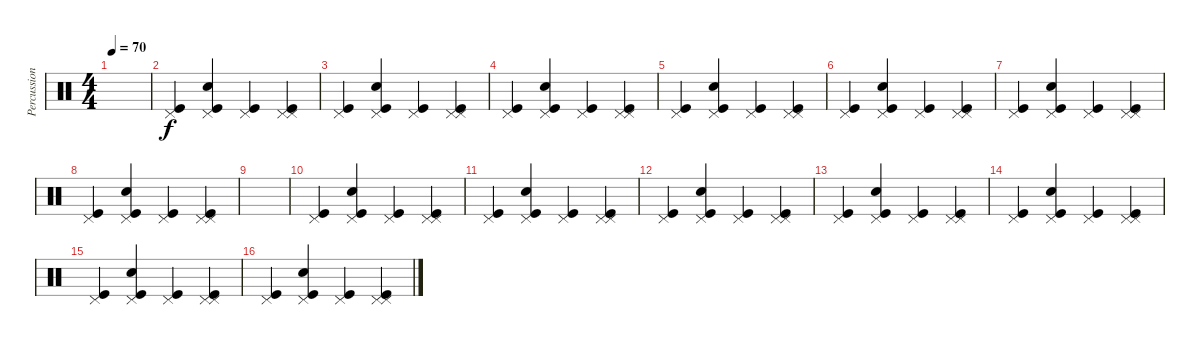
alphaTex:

\track ("Percussion" "Percussion") {instrument percussion}
\staff {score}
\articulation defaults
\ts (4 4)
\tempo 70
\clef neutral
\ks c
|
("Kick (hit)" "Pedal Hi-Hat (hit)").4 ("Kick (hit)" "Snare (hit) 2" "Pedal Hi-Hat (hit)").4 ("Kick (hit)" "Pedal Hi-Hat (hit)").4 ("Kick (hit)" "Pedal Hi-Hat (hit)" "Pedal Hi-Hat (hit)").4 |
("Kick (hit)" "Pedal Hi-Hat (hit)").4 ("Kick (hit)" "Snare (hit) 2" "Pedal Hi-Hat (hit)").4 ("Kick (hit)" "Pedal Hi-Hat (hit)").4 ("Kick (hit)" "Pedal Hi-Hat (hit)" "Pedal Hi-Hat (hit)").4 |
("Kick (hit)" "Pedal Hi-Hat (hit)").4 ("Kick (hit)" "Snare (hit) 2" "Pedal Hi-Hat (hit)").4 ("Kick (hit)" "Pedal Hi-Hat (hit)").4 ("Kick (hit)" "Pedal Hi-Hat (hit)" "Pedal Hi-Hat (hit)").4 |
("Kick (hit)" "Pedal Hi-Hat (hit)").4 ("Kick (hit)" "Snare (hit) 2" "Pedal Hi-Hat (hit)").4 ("Kick (hit)" "Pedal Hi-Hat (hit)").4 ("Kick (hit)" "Pedal Hi-Hat (hit)" "Pedal Hi-Hat (hit)").4 |
("Kick (hit)" "Pedal Hi-Hat (hit)").4 ("Kick (hit)" "Snare (hit) 2" "Pedal Hi-Hat (hit)").4 ("Kick (hit)" "Pedal Hi-Hat (hit)").4 ("Kick (hit)" "Pedal Hi-Hat (hit)" "Pedal Hi-Hat (hit)").4 |
("Kick (hit)" "Pedal Hi-Hat (hit)").4 ("Kick (hit)" "Snare (hit) 2" "Pedal Hi-Hat (hit)").4 ("Kick (hit)" "Pedal Hi-Hat (hit)").4 ("Kick (hit)" "Pedal Hi-Hat (hit)" "Pedal Hi-Hat (hit)").4 |
("Kick (hit)" "Pedal Hi-Hat (hit)").4 ("Kick (hit)" "Snare (hit) 2" "Pedal Hi-Hat (hit)").4 ("Kick (hit)" "Pedal Hi-Hat (hit)").4 ("Kick (hit)" "Pedal Hi-Hat (hit)" "Pedal Hi-Hat (hit)").4 |
|
("Kick (hit)" "Pedal Hi-Hat (hit)").4 ("Kick (hit)" "Snare (hit) 2" "Pedal Hi-Hat (hit)").4 ("Kick (hit)" "Pedal Hi-Hat (hit)").4 ("Kick (hit)" "Pedal Hi-Hat (hit)" "Pedal Hi-Hat (hit)").4 |
("Kick (hit)" "Pedal Hi-Hat (hit)").4 ("Kick (hit)" "Snare (hit) 2" "Pedal Hi-Hat (hit)").4 ("Kick (hit)" "Pedal Hi-Hat (hit)").4 ("Kick (hit)" "Pedal Hi-Hat (hit)" "Pedal Hi-Hat (hit)").4 |
("Kick (hit)" "Pedal Hi-Hat (hit)").4 ("Kick (hit)" "Snare (hit) 2" "Pedal Hi-Hat (hit)").4 ("Kick (hit)" "Pedal Hi-Hat (hit)").4 ("Kick (hit)" "Pedal Hi-Hat (hit)" "Pedal Hi-Hat (hit)").4 |
("Kick (hit)" "Pedal Hi-Hat (hit)").4 ("Kick (hit)" "Snare (hit) 2" "Pedal Hi-Hat (hit)").4 ("Kick (hit)" "Pedal Hi-Hat (hit)").4 ("Kick (hit)" "Pedal Hi-Hat (hit)" "Pedal Hi-Hat (hit)").4 |
("Kick (hit)" "Pedal Hi-Hat (hit)").4 ("Kick (hit)" "Snare (hit) 2" "Pedal Hi-Hat (hit)").4 ("Kick (hit)" "Pedal Hi-Hat (hit)").4 ("Kick (hit)" "Pedal Hi-Hat (hit)" "Pedal Hi-Hat (hit)").4 |
("Kick (hit)" "Pedal Hi-Hat (hit)").4 ("Kick (hit)" "Snare (hit) 2" "Pedal Hi-Hat (hit)").4 ("Kick (hit)" "Pedal Hi-Hat (hit)").4 ("Kick (hit)" "Pedal Hi-Hat (hit)" "Pedal Hi-Hat (hit)").4 |
("Kick (hit)" "Pedal Hi-Hat (hit)").4 ("Kick (hit)" "Snare (hit) 2" "Pedal Hi-Hat (hit)").4 ("Kick (hit)" "Pedal Hi-Hat (hit)").4 ("Kick (hit)" "Pedal Hi-Hat (hit)" "Pedal Hi-Hat (hit)").4
